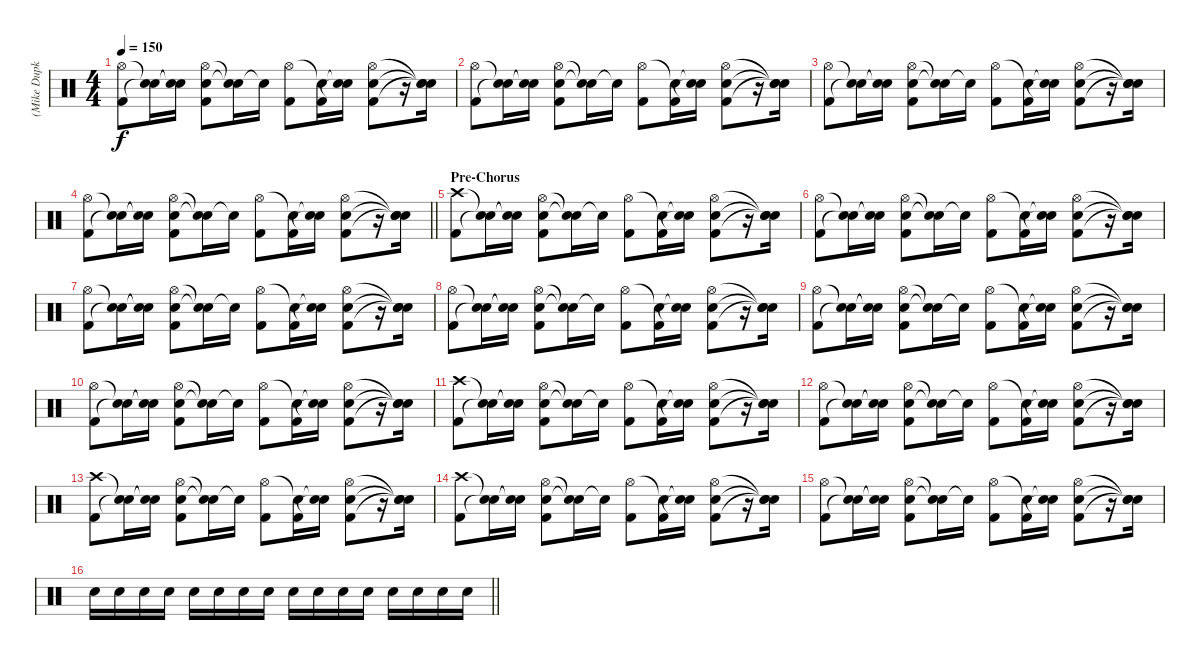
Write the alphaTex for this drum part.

\track ("(Mike Dupke) Drums" "(Mike Dupk") {instrument percussion}
\staff {score}
\articulation defaults
\ts (4 4)
\tempo 150
\clef neutral
\ks c
("Hi-Hat (open)" "Kick (hit) 2").8{dy f} ("Snare (hit)"{t} "Snare (hit)"{t}).16 ("Snare (hit)"{t} "Snare (hit)"{t}).16 ("Hi-Hat (open)" "Snare (hit) 2" "Kick (hit) 2").8 ("Snare (hit)"{t} "Snare (hit)"{t}).16 "Snare (hit)"{t}.16 ("Hi-Hat (open)" "Kick (hit) 2").8 ("Snare (hit)"{t} "Kick (hit) 2").16 ("Snare (hit)"{t} "Snare (hit)"{t}).16 ("Hi-Hat (open)" "Snare (hit) 2" "Kick (hit) 2").8 r.16 ("Snare (hit)"{t} "Snare (hit)"{t} "Snare (hit)"{t}).16 |
("Hi-Hat (open)" "Kick (hit) 2").8 ("Snare (hit)"{t} "Snare (hit)"{t}).16 ("Snare (hit)"{t} "Snare (hit)"{t}).16 ("Hi-Hat (open)" "Snare (hit) 2" "Kick (hit) 2").8 ("Snare (hit)"{t} "Snare (hit)"{t}).16 "Snare (hit)"{t}.16 ("Hi-Hat (open)" "Kick (hit) 2").8 ("Snare (hit)"{t} "Kick (hit) 2").16 ("Snare (hit)"{t} "Snare (hit)"{t}).16 ("Hi-Hat (open)" "Snare (hit) 2" "Kick (hit) 2").8 r.16 ("Snare (hit)"{t} "Snare (hit)"{t} "Snare (hit)"{t}).16 |
("Hi-Hat (open)" "Kick (hit) 2").8 ("Snare (hit)"{t} "Snare (hit)"{t}).16 ("Snare (hit)"{t} "Snare (hit)"{t}).16 ("Hi-Hat (open)" "Snare (hit) 2" "Kick (hit) 2").8 ("Snare (hit)"{t} "Snare (hit)"{t}).16 "Snare (hit)"{t}.16 ("Hi-Hat (open)" "Kick (hit) 2").8 ("Snare (hit)"{t} "Kick (hit) 2").16 ("Snare (hit)"{t} "Snare (hit)"{t}).16 ("Hi-Hat (open)" "Snare (hit) 2" "Kick (hit) 2").8 r.16 ("Snare (hit)"{t} "Snare (hit)"{t} "Snare (hit)"{t}).16 |
\barLineRight lightlight
("Hi-Hat (open)" "Kick (hit) 2").8 ("Snare (hit)"{t} "Snare (hit)"{t}).16 ("Snare (hit)"{t} "Snare (hit)"{t}).16 ("Hi-Hat (open)" "Snare (hit) 2" "Kick (hit) 2").8 ("Snare (hit)"{t} "Snare (hit)"{t}).16 "Snare (hit)"{t}.16 ("Hi-Hat (open)" "Kick (hit) 2").8 ("Snare (hit)"{t} "Kick (hit) 2").16 ("Snare (hit)"{t} "Snare (hit)"{t}).16 ("Hi-Hat (open)" "Snare (hit) 2" "Kick (hit) 2").8 r.16 ("Snare (hit)"{t} "Snare (hit)"{t} "Snare (hit)"{t}).16 |
\section ("" "Pre-Chorus")
("Crash high (hit)" "Kick (hit) 2").8 ("Snare (hit)"{t} "Snare (hit)"{t}).16 ("Snare (hit)"{t} "Snare (hit)"{t}).16 ("Hi-Hat (open)" "Snare (hit) 2" "Kick (hit) 2").8 ("Snare (hit)"{t} "Snare (hit)"{t}).16 "Snare (hit)"{t}.16 ("Hi-Hat (open)" "Kick (hit) 2").8 ("Snare (hit)"{t} "Kick (hit) 2").16 ("Snare (hit)"{t} "Snare (hit)"{t}).16 ("Hi-Hat (open)" "Snare (hit) 2" "Kick (hit) 2").8 r.16 ("Snare (hit)"{t} "Snare (hit)"{t} "Snare (hit)"{t}).16 |
("Hi-Hat (open)" "Kick (hit) 2").8 ("Snare (hit)"{t} "Snare (hit)"{t}).16 ("Snare (hit)"{t} "Snare (hit)"{t}).16 ("Hi-Hat (open)" "Snare (hit) 2" "Kick (hit) 2").8 ("Snare (hit)"{t} "Snare (hit)"{t}).16 "Snare (hit)"{t}.16 ("Hi-Hat (open)" "Kick (hit) 2").8 ("Snare (hit)"{t} "Kick (hit) 2").16 ("Snare (hit)"{t} "Snare (hit)"{t}).16 ("Hi-Hat (open)" "Snare (hit) 2" "Kick (hit) 2").8 r.16 ("Snare (hit)"{t} "Snare (hit)"{t} "Snare (hit)"{t}).16 |
("Hi-Hat (open)" "Kick (hit) 2").8 ("Snare (hit)"{t} "Snare (hit)"{t}).16 ("Snare (hit)"{t} "Snare (hit)"{t}).16 ("Hi-Hat (open)" "Snare (hit) 2" "Kick (hit) 2").8 ("Snare (hit)"{t} "Snare (hit)"{t}).16 "Snare (hit)"{t}.16 ("Hi-Hat (open)" "Kick (hit) 2").8 ("Snare (hit)"{t} "Kick (hit) 2").16 ("Snare (hit)"{t} "Snare (hit)"{t}).16 ("Hi-Hat (open)" "Snare (hit) 2" "Kick (hit) 2").8 r.16 ("Snare (hit)"{t} "Snare (hit)"{t} "Snare (hit)"{t}).16 |
("Hi-Hat (open)" "Kick (hit) 2").8 ("Snare (hit)"{t} "Snare (hit)"{t}).16 ("Snare (hit)"{t} "Snare (hit)"{t}).16 ("Hi-Hat (open)" "Snare (hit) 2" "Kick (hit) 2").8 ("Snare (hit)"{t} "Snare (hit)"{t}).16 "Snare (hit)"{t}.16 ("Hi-Hat (open)" "Kick (hit) 2").8 ("Snare (hit)"{t} "Kick (hit) 2").16 ("Snare (hit)"{t} "Snare (hit)"{t}).16 ("Hi-Hat (open)" "Snare (hit) 2" "Kick (hit) 2").8 r.16 ("Snare (hit)"{t} "Snare (hit)"{t} "Snare (hit)"{t}).16 |
("Hi-Hat (open)" "Kick (hit) 2").8 ("Snare (hit)"{t} "Snare (hit)"{t}).16 ("Snare (hit)"{t} "Snare (hit)"{t}).16 ("Hi-Hat (open)" "Snare (hit) 2" "Kick (hit) 2").8 ("Snare (hit)"{t} "Snare (hit)"{t}).16 "Snare (hit)"{t}.16 ("Hi-Hat (open)" "Kick (hit) 2").8 ("Snare (hit)"{t} "Kick (hit) 2").16 ("Snare (hit)"{t} "Snare (hit)"{t}).16 ("Hi-Hat (open)" "Snare (hit) 2" "Kick (hit) 2").8 r.16 ("Snare (hit)"{t} "Snare (hit)"{t} "Snare (hit)"{t}).16 |
("Hi-Hat (open)" "Kick (hit) 2").8 ("Snare (hit)"{t} "Snare (hit)"{t}).16 ("Snare (hit)"{t} "Snare (hit)"{t}).16 ("Hi-Hat (open)" "Snare (hit) 2" "Kick (hit) 2").8 ("Snare (hit)"{t} "Snare (hit)"{t}).16 "Snare (hit)"{t}.16 ("Hi-Hat (open)" "Kick (hit) 2").8 ("Snare (hit)"{t} "Kick (hit) 2").16 ("Snare (hit)"{t} "Snare (hit)"{t}).16 ("Hi-Hat (open)" "Snare (hit) 2" "Kick (hit) 2").8 r.16 ("Snare (hit)"{t} "Snare (hit)"{t} "Snare (hit)"{t}).16 |
("Crash high (hit)" "Kick (hit) 2").8 ("Snare (hit)"{t} "Snare (hit)"{t}).16 ("Snare (hit)"{t} "Snare (hit)"{t}).16 ("Hi-Hat (open)" "Snare (hit) 2" "Kick (hit) 2").8 ("Snare (hit)"{t} "Snare (hit)"{t}).16 "Snare (hit)"{t}.16 ("Hi-Hat (open)" "Kick (hit) 2").8 ("Snare (hit)"{t} "Kick (hit) 2").16 ("Snare (hit)"{t} "Snare (hit)"{t}).16 ("Hi-Hat (open)" "Snare (hit) 2" "Kick (hit) 2").8 r.16 ("Snare (hit)"{t} "Snare (hit)"{t} "Snare (hit)"{t}).16 |
("Hi-Hat (open)" "Kick (hit) 2").8 ("Snare (hit)"{t} "Snare (hit)"{t}).16 ("Snare (hit)"{t} "Snare (hit)"{t}).16 ("Hi-Hat (open)" "Snare (hit) 2" "Kick (hit) 2").8 ("Snare (hit)"{t} "Snare (hit)"{t}).16 "Snare (hit)"{t}.16 ("Hi-Hat (open)" "Kick (hit) 2").8 ("Snare (hit)"{t} "Kick (hit) 2").16 ("Snare (hit)"{t} "Snare (hit)"{t}).16 ("Hi-Hat (open)" "Snare (hit) 2" "Kick (hit) 2").8 r.16 ("Snare (hit)"{t} "Snare (hit)"{t} "Snare (hit)"{t}).16 |
("Crash high (hit)" "Kick (hit) 2").8 ("Snare (hit)"{t} "Snare (hit)"{t}).16 ("Snare (hit)"{t} "Snare (hit)"{t}).16 ("Hi-Hat (open)" "Snare (hit) 2" "Kick (hit) 2").8 ("Snare (hit)"{t} "Snare (hit)"{t}).16 "Snare (hit)"{t}.16 ("Hi-Hat (open)" "Kick (hit) 2").8 ("Snare (hit)"{t} "Kick (hit) 2").16 ("Snare (hit)"{t} "Snare (hit)"{t}).16 ("Hi-Hat (open)" "Snare (hit) 2" "Kick (hit) 2").8 r.16 ("Snare (hit)"{t} "Snare (hit)"{t} "Snare (hit)"{t}).16 |
("Crash high (hit)" "Kick (hit) 2").8 ("Snare (hit)"{t} "Snare (hit)"{t}).16 ("Snare (hit)"{t} "Snare (hit)"{t}).16 ("Hi-Hat (open)" "Snare (hit) 2" "Kick (hit) 2").8 ("Snare (hit)"{t} "Snare (hit)"{t}).16 "Snare (hit)"{t}.16 ("Hi-Hat (open)" "Kick (hit) 2").8 ("Snare (hit)"{t} "Kick (hit) 2").16 ("Snare (hit)"{t} "Snare (hit)"{t}).16 ("Hi-Hat (open)" "Snare (hit) 2" "Kick (hit) 2").8 r.16 ("Snare (hit)"{t} "Snare (hit)"{t} "Snare (hit)"{t}).16 |
("Hi-Hat (open)" "Kick (hit) 2").8 ("Snare (hit)"{t} "Snare (hit)"{t}).16 ("Snare (hit)"{t} "Snare (hit)"{t}).16 ("Hi-Hat (open)" "Snare (hit) 2" "Kick (hit) 2").8 ("Snare (hit)"{t} "Snare (hit)"{t}).16 "Snare (hit)"{t}.16 ("Hi-Hat (open)" "Kick (hit) 2").8 ("Snare (hit)"{t} "Kick (hit) 2").16 ("Snare (hit)"{t} "Snare (hit)"{t}).16 ("Hi-Hat (open)" "Snare (hit) 2" "Kick (hit) 2").8 r.16 ("Snare (hit)"{t} "Snare (hit)"{t} "Snare (hit)"{t}).16 |
\barLineRight lightlight "Snare (hit) 2".16 "Snare (hit) 2".16 "Snare (hit) 2".16 "Snare (hit) 2".16 "Snare (hit) 2".16 "Snare (hit) 2".16 "Snare (hit) 2".16 "Snare (hit) 2".16 "Snare (hit) 2".16 "Snare (hit) 2".16 "Snare (hit) 2".16 "Snare (hit) 2".16 "Snare (hit) 2".16 "Snare (hit) 2".16 "Snare (hit) 2".16 "Snare (hit) 2".16
